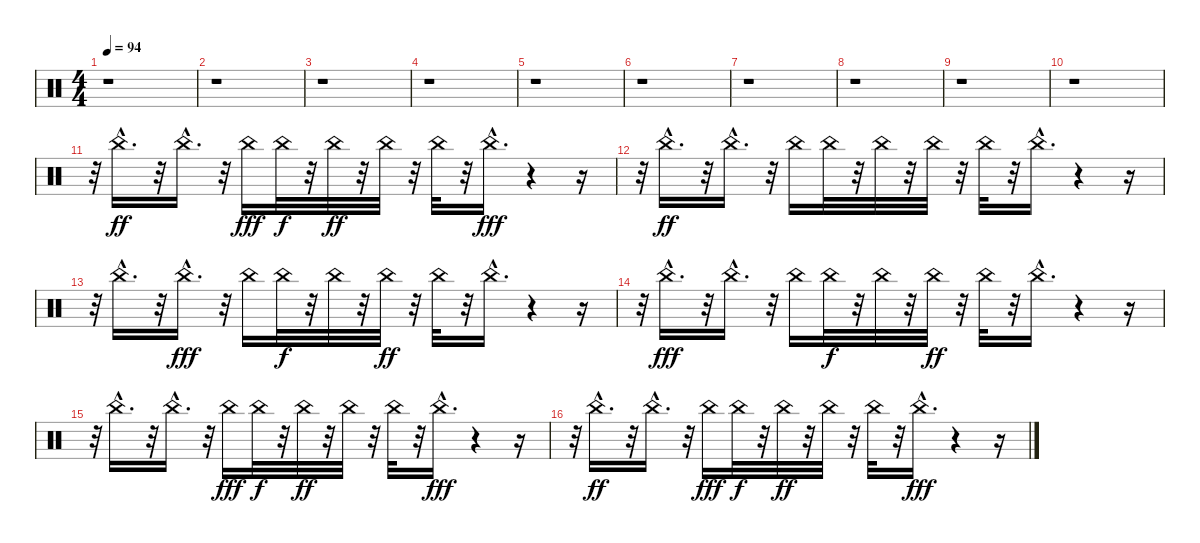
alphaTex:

\track "" {instrument percussion}
\staff {score}
\articulation defaults
\ts (4 4)
\tempo 94
\clef neutral
\ks c
r.1{dy fff} |
r.1 |
r.1 |
r.1 |
r.1 |
r.1 |
r.1 |
r.1 |
r.1 |
r.1 |
r.32 "China (choke)"{hac}.16{d dy ff volume 6} r.32 "China (choke)"{hac}.16{d} r.32 "China (choke)".16{dy fff} "China (choke)".32{dy f} r.32 "China (choke)".32{dy ff} r.32 "China (choke)".32 r.32 "China (choke)".32 r.32 "China (choke)"{hac}.16{d dy fff} r.4 r.16 |
r.32 "China (choke)"{hac}.16{d dy ff} r.32 "China (choke)"{hac}.16{d} r.32 "China (choke)".16 "China (choke)".32 r.32 "China (choke)".32 r.32 "China (choke)".32 r.32 "China (choke)".32 r.32 "China (choke)"{hac}.16{d} r.4 r.16 |
r.32 "China (choke)"{hac}.16{d} r.32 "China (choke)"{hac}.16{d dy fff} r.32 "China (choke)".16 "China (choke)".32{dy f} r.32 "China (choke)".32 r.32 "China (choke)".32{dy ff} r.32 "China (choke)".32 r.32 "China (choke)"{hac}.16{d} r.4 r.16 |
r.32 "China (choke)"{hac}.16{d dy fff} r.32 "China (choke)"{hac}.16{d} r.32 "China (choke)".16 "China (choke)".32{dy f} r.32 "China (choke)".32 r.32 "China (choke)".32{dy ff} r.32 "China (choke)".32 r.32 "China (choke)"{hac}.16{d} r.4 r.16 |
r.32 "China (choke)"{hac}.16{d} r.32 "China (choke)"{hac}.16{d} r.32 "China (choke)".16{dy fff} "China (choke)".32{dy f} r.32 "China (choke)".32{dy ff} r.32 "China (choke)".32 r.32 "China (choke)".32 r.32 "China (choke)"{hac}.16{d dy fff} r.4 r.16 |
r.32 "China (choke)"{hac}.16{d dy ff} r.32 "China (choke)"{hac}.16{d} r.32 "China (choke)".16{dy fff} "China (choke)".32{dy f} r.32 "China (choke)".32{dy ff} r.32 "China (choke)".32 r.32 "China (choke)".32 r.32 "China (choke)"{hac}.16{d dy fff} r.4 r.16
